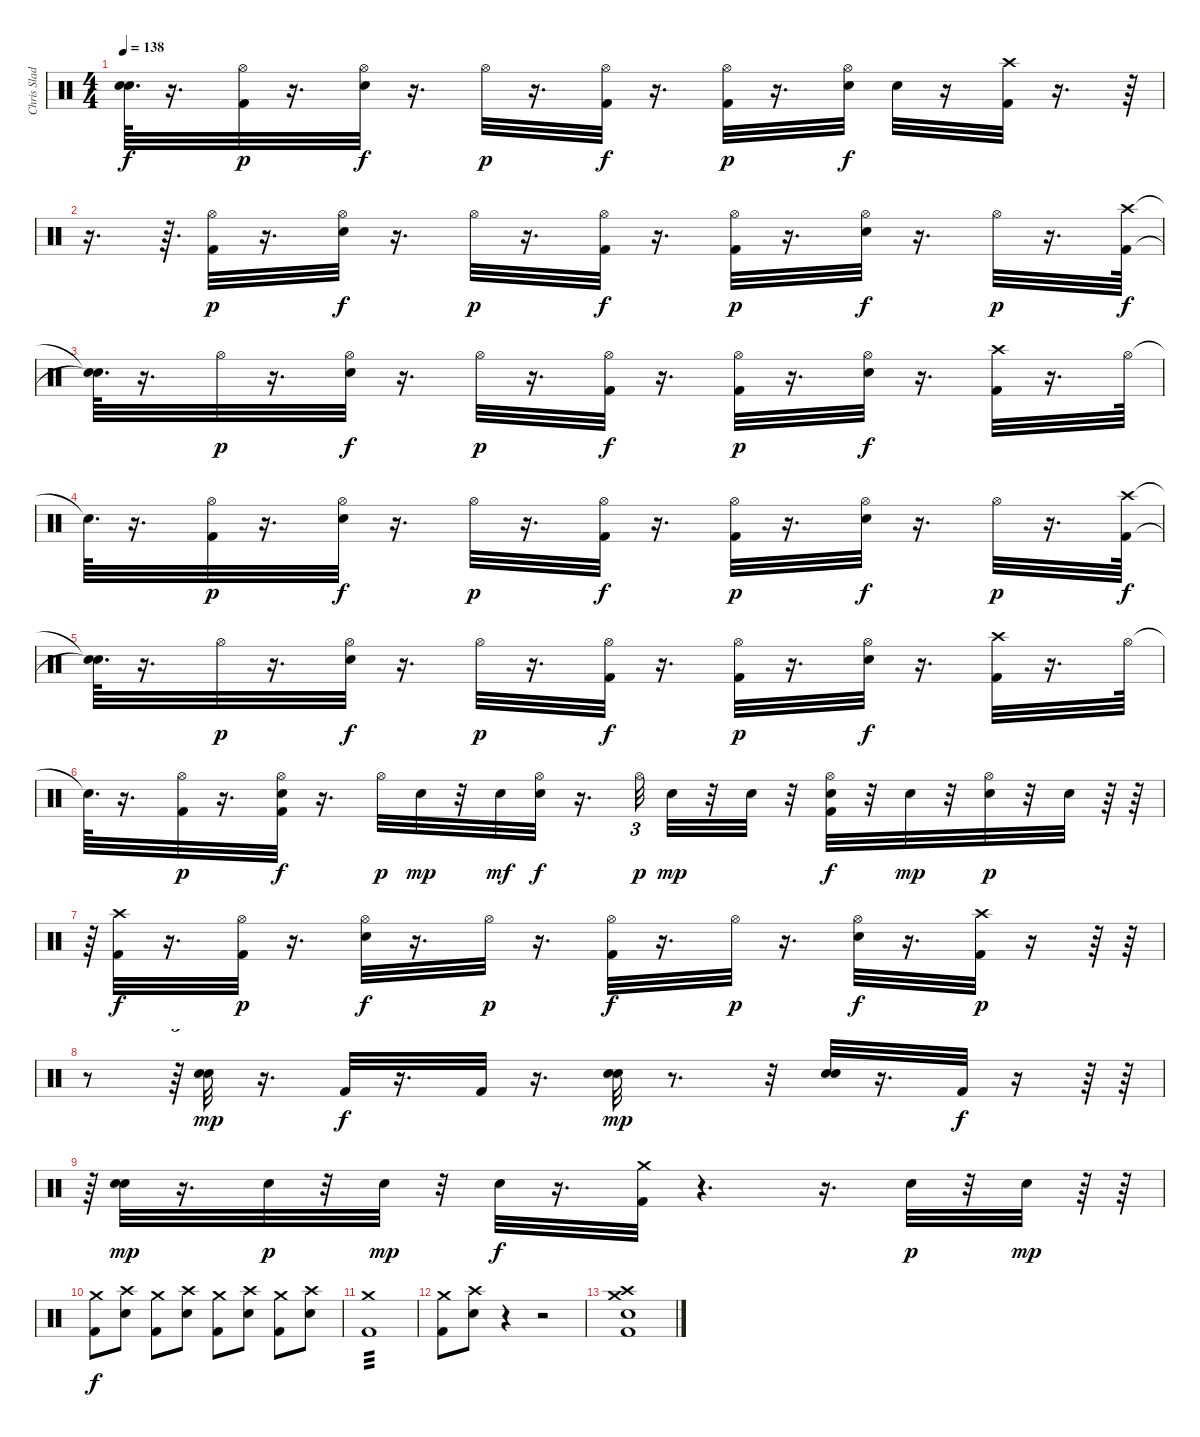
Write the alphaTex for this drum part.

\track ("Chris Slade" "Chris Slad") {instrument percussion}
\staff {score}
\articulation defaults
\ts (4 4)
\tempo 138
\clef neutral
\ks c
("Snare (hit)"{t} "Snare (hit)"{t}).64{d dy f} r.16{d} ("Kick (hit) 2" "Hi-Hat (open)").32{dy p} r.16{d} ("Hi-Hat (open)" "Electric Snare (hit)").32{dy f} r.16{d} "Hi-Hat (open)".32{dy p} r.16{d} ("Hi-Hat (open)" "Kick (hit) 2").32{dy f} r.16{d} ("Kick (hit) 2" "Hi-Hat (open)").32{dy p} r.16{d} ("Hi-Hat (open)" "Electric Snare (hit)").32{dy f} "Snare (hit) 2".32 r.16 ("Crash high (hit)" "Kick (hit) 2").32 r.16{d} r.64 |
r.16{d} r.64{d} ("Kick (hit) 2" "Hi-Hat (open)").32{dy p} r.16{d} ("Hi-Hat (open)" "Electric Snare (hit)").32{dy f} r.16{d} "Hi-Hat (open)".32{dy p} r.16{d} ("Hi-Hat (open)" "Kick (hit) 2").32{dy f} r.16{d} ("Kick (hit) 2" "Hi-Hat (open)").32{dy p} r.16{d} ("Hi-Hat (open)" "Electric Snare (hit)").32{dy f} r.16{d} "Hi-Hat (open)".32{dy p} r.16{d} ("Crash high (hit)" "Kick (hit) 2").64{dy f} |
("Snare (hit)"{t} "Snare (hit)"{t}).64{d} r.16{d} "Hi-Hat (open)".32{dy p} r.16{d} ("Hi-Hat (open)" "Electric Snare (hit)").32{dy f} r.16{d} "Hi-Hat (open)".32{dy p} r.16{d} ("Hi-Hat (open)" "Kick (hit) 2").32{dy f} r.16{d} ("Kick (hit) 2" "Hi-Hat (open)").32{dy p} r.16{d} ("Hi-Hat (open)" "Electric Snare (hit)").32{dy f} r.16{d} ("Crash high (hit)" "Kick (hit) 2").32 r.16{d} "Hi-Hat (open)".64 |
"Snare (hit)"{t}.64{d} r.16{d} ("Kick (hit) 2" "Hi-Hat (open)").32{dy p} r.16{d} ("Hi-Hat (open)" "Electric Snare (hit)").32{dy f} r.16{d} "Hi-Hat (open)".32{dy p} r.16{d} ("Hi-Hat (open)" "Kick (hit) 2").32{dy f} r.16{d} ("Kick (hit) 2" "Hi-Hat (open)").32{dy p} r.16{d} ("Hi-Hat (open)" "Electric Snare (hit)").32{dy f} r.16{d} "Hi-Hat (open)".32{dy p} r.16{d} ("Crash high (hit)" "Kick (hit) 2").64{dy f} |
("Snare (hit)"{t} "Snare (hit)"{t}).64{d} r.16{d} "Hi-Hat (open)".32{dy p} r.16{d} ("Hi-Hat (open)" "Electric Snare (hit)").32{dy f} r.16{d} "Hi-Hat (open)".32{dy p} r.16{d} ("Hi-Hat (open)" "Kick (hit) 2").32{dy f} r.16{d} ("Kick (hit) 2" "Hi-Hat (open)").32{dy p} r.16{d} ("Hi-Hat (open)" "Electric Snare (hit)").32{dy f} r.16{d} ("Crash high (hit)" "Kick (hit) 2").32 r.16{d} "Hi-Hat (open)".64 |
"Snare (hit)"{t}.64{d} r.16{d} ("Kick (hit) 2" "Hi-Hat (open)").32{dy p} r.16{d} ("Kick (hit) 2" "Hi-Hat (open)" "Electric Snare (hit)").32{dy f} r.16{d} "Hi-Hat (open)".32{dy p} "Electric Snare (hit)".32{dy mp} r.32 "Electric Snare (hit)".32{dy mf} ("Hi-Hat (open)" "Electric Snare (hit)").32{dy f} r.16{d} "Hi-Hat (open)".32{tu (3 2) dy p} "Electric Snare (hit)".32{dy mp} r.32 "Electric Snare (hit)".32 r.32 ("Kick (hit) 2" "Hi-Hat (open)" "Electric Snare (hit)").32{dy f} r.32 "Electric Snare (hit)".32{dy mp} r.32 ("Electric Snare (hit)" "Hi-Hat (open)").32{dy p} r.32 "Electric Snare (hit)".32 r.64 r.64 |
r.64{tu (5 4)} ("Crash high (hit)" "Kick (hit) 2").32{dy f} r.16{d} ("Kick (hit) 2" "Hi-Hat (open)").32{dy p} r.16{d} ("Hi-Hat (open)" "Electric Snare (hit)").32{dy f} r.16{d} "Hi-Hat (open)".32{dy p} r.16{d} ("Hi-Hat (open)" "Kick (hit) 2").32{dy f} r.16{d} "Hi-Hat (open)".32{dy p} r.16{d} ("Hi-Hat (open)" "Electric Snare (hit)").32{dy f} r.16{d} ("Kick (hit) 2" "Crash high (hit)").32{dy p} r.16 r.64 r.64 |
r.8 r.64{tu (5 4)} ("Electric Snare (hit)" "Snare (hit) 2").32{dy mp} r.16{d} "Kick (hit) 2".32{dy f} r.16{d} "Kick (hit) 2".32 r.16{d} ("Electric Snare (hit)" "Snare (hit) 2").32{dy mp} r.8{d} r.32 ("Electric Snare (hit)" "Snare (hit) 2").32 r.16{d} "Kick (hit) 2".32{dy f} r.16 r.64 r.64 |
r.64{tu (5 4)} ("Electric Snare (hit)" "Snare (hit) 2").32{dy mp} r.16{d} "Electric Snare (hit)".32{dy p} r.32 "Electric Snare (hit)".32{dy mp} r.32 "Electric Snare (hit)".32{dy f} r.16{d} ("Crash medium (hit)" "Kick (hit) 2").32 r.4{d} r.16{d} "Electric Snare (hit)".32{dy p} r.32 "Electric Snare (hit)".32{dy mp} r.64 r.64 |
("Kick (hit) 2" "Crash medium (hit)").8{dy f} ("Snare (hit) 2" "Crash high (hit)").8 ("Kick (hit) 2" "Crash medium (hit)").8 ("Snare (hit) 2" "Crash high (hit)").8 ("Kick (hit) 2" "Crash medium (hit)").8 ("Snare (hit) 2" "Crash high (hit)").8 ("Kick (hit) 2" "Crash medium (hit)").8 ("Snare (hit) 2" "Crash high (hit)").8 |
("Kick (hit) 2" "Crash medium (hit)").1{tp 3} |
("Kick (hit) 2" "Crash medium (hit)").8 ("Snare (hit) 2" "Crash high (hit)").8 r.4 r.2 |
("Crash high (hit)" "Snare (hit) 2" "Kick (hit) 2" "Crash medium (hit)").1
